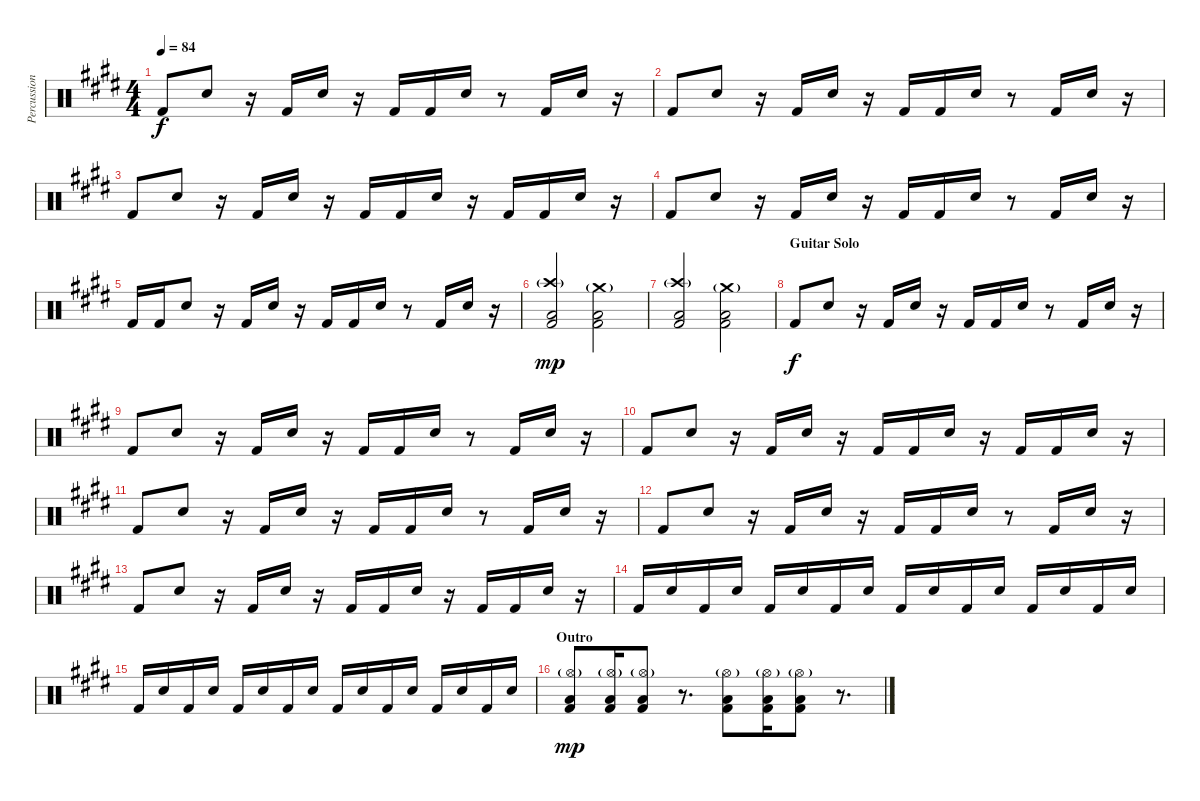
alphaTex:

\track ("Percussion" "Percussion") {instrument percussion}
\staff {score}
\articulation defaults
\ts (4 4)
\tempo 84
\clef neutral
\ks e "Kick (hit) 2".8{dy f} "Snare (hit) 2".8
r.16 "Kick (hit) 2".16 "Snare (hit) 2".16 r.16 "Kick (hit) 2".16 "Kick (hit) 2".16 "Snare (hit) 2".16 r.8 "Kick (hit) 2".16 "Snare (hit) 2".16 r.16 |
"Kick (hit) 2".8 "Snare (hit) 2".8 r.16 "Kick (hit) 2".16 "Snare (hit) 2".16 r.16 "Kick (hit) 2".16 "Kick (hit) 2".16 "Snare (hit) 2".16 r.8 "Kick (hit) 2".16 "Snare (hit) 2".16 r.16 |
"Kick (hit) 2".8 "Snare (hit) 2".8 r.16 "Kick (hit) 2".16 "Snare (hit) 2".16 r.16 "Kick (hit) 2".16 "Kick (hit) 2".16 "Snare (hit) 2".16 r.16 "Kick (hit) 2".16 "Kick (hit) 2".16 "Snare (hit) 2".16 r.16 |
"Kick (hit) 2".8 "Snare (hit) 2".8 r.16 "Kick (hit) 2".16 "Snare (hit) 2".16 r.16 "Kick (hit) 2".16 "Kick (hit) 2".16 "Snare (hit) 2".16 r.8 "Kick (hit) 2".16 "Snare (hit) 2".16 r.16 |
"Kick (hit) 2".16 "Kick (hit) 2".16 "Snare (hit) 2".8 r.16 "Kick (hit) 2".16 "Snare (hit) 2".16 r.16 "Kick (hit) 2".16 "Kick (hit) 2".16 "Snare (hit) 2".16 r.8 "Kick (hit) 2".16 "Snare (hit) 2".16 r.16 |
("Crash high (hit)"{g} "Low Floor Tom (hit)" "Kick (hit) 2").2{dy mp} ("Crash medium (hit)"{g} "Low Floor Tom (hit)" "Kick (hit) 2").2 |
("Crash high (hit)"{g} "Low Floor Tom (hit)" "Kick (hit) 2").2 ("Crash medium (hit)"{g} "Low Floor Tom (hit)" "Kick (hit) 2").2 |
\section ("" "Guitar Solo")
"Kick (hit) 2".8{dy f} "Snare (hit) 2".8 r.16 "Kick (hit) 2".16 "Snare (hit) 2".16 r.16 "Kick (hit) 2".16 "Kick (hit) 2".16 "Snare (hit) 2".16 r.8 "Kick (hit) 2".16 "Snare (hit) 2".16 r.16 |
"Kick (hit) 2".8 "Snare (hit) 2".8 r.16 "Kick (hit) 2".16 "Snare (hit) 2".16 r.16 "Kick (hit) 2".16 "Kick (hit) 2".16 "Snare (hit) 2".16 r.8 "Kick (hit) 2".16 "Snare (hit) 2".16 r.16 |
"Kick (hit) 2".8 "Snare (hit) 2".8 r.16 "Kick (hit) 2".16 "Snare (hit) 2".16 r.16 "Kick (hit) 2".16 "Kick (hit) 2".16 "Snare (hit) 2".16 r.16 "Kick (hit) 2".16 "Kick (hit) 2".16 "Snare (hit) 2".16 r.16 |
"Kick (hit) 2".8 "Snare (hit) 2".8 r.16 "Kick (hit) 2".16 "Snare (hit) 2".16 r.16 "Kick (hit) 2".16 "Kick (hit) 2".16 "Snare (hit) 2".16 r.8 "Kick (hit) 2".16 "Snare (hit) 2".16 r.16 |
"Kick (hit) 2".8 "Snare (hit) 2".8 r.16 "Kick (hit) 2".16 "Snare (hit) 2".16 r.16 "Kick (hit) 2".16 "Kick (hit) 2".16 "Snare (hit) 2".16 r.8 "Kick (hit) 2".16 "Snare (hit) 2".16 r.16 |
"Kick (hit) 2".8 "Snare (hit) 2".8 r.16 "Kick (hit) 2".16 "Snare (hit) 2".16 r.16 "Kick (hit) 2".16 "Kick (hit) 2".16 "Snare (hit) 2".16 r.16 "Kick (hit) 2".16 "Kick (hit) 2".16 "Snare (hit) 2".16 r.16 |
"Kick (hit) 2".16 "Snare (hit) 2".16 "Kick (hit) 2".16 "Snare (hit) 2".16 "Kick (hit) 2".16 "Snare (hit) 2".16 "Kick (hit) 2".16 "Snare (hit) 2".16 "Kick (hit) 2".16 "Snare (hit) 2".16 "Kick (hit) 2".16 "Snare (hit) 2".16 "Kick (hit) 2".16 "Snare (hit) 2".16 "Kick (hit) 2".16 "Snare (hit) 2".16 |
"Kick (hit) 2".16 "Snare (hit) 2".16 "Kick (hit) 2".16 "Snare (hit) 2".16 "Kick (hit) 2".16 "Snare (hit) 2".16 "Kick (hit) 2".16 "Snare (hit) 2".16 "Kick (hit) 2".16 "Snare (hit) 2".16 "Kick (hit) 2".16 "Snare (hit) 2".16 "Kick (hit) 2".16 "Snare (hit) 2".16 "Kick (hit) 2".16 "Snare (hit) 2".16 |
\section ("" "Outro")
("Hi-Hat (open)"{g} "Low Tom (hit)" "Kick (hit) 2").8{dy mp} ("Hi-Hat (open)"{g} "Low Tom (hit)" "Kick (hit) 2").16 ("Hi-Hat (open)"{g} "Low Tom (hit)" "Kick (hit) 2").8 r.8{d} ("Hi-Hat (open)"{g} "Low Floor Tom (hit)" "Kick (hit) 2").8 ("Hi-Hat (open)"{g} "Low Floor Tom (hit)" "Kick (hit) 2").16 ("Hi-Hat (open)"{g} "Low Floor Tom (hit)" "Kick (hit) 2").8 r.8{d}
